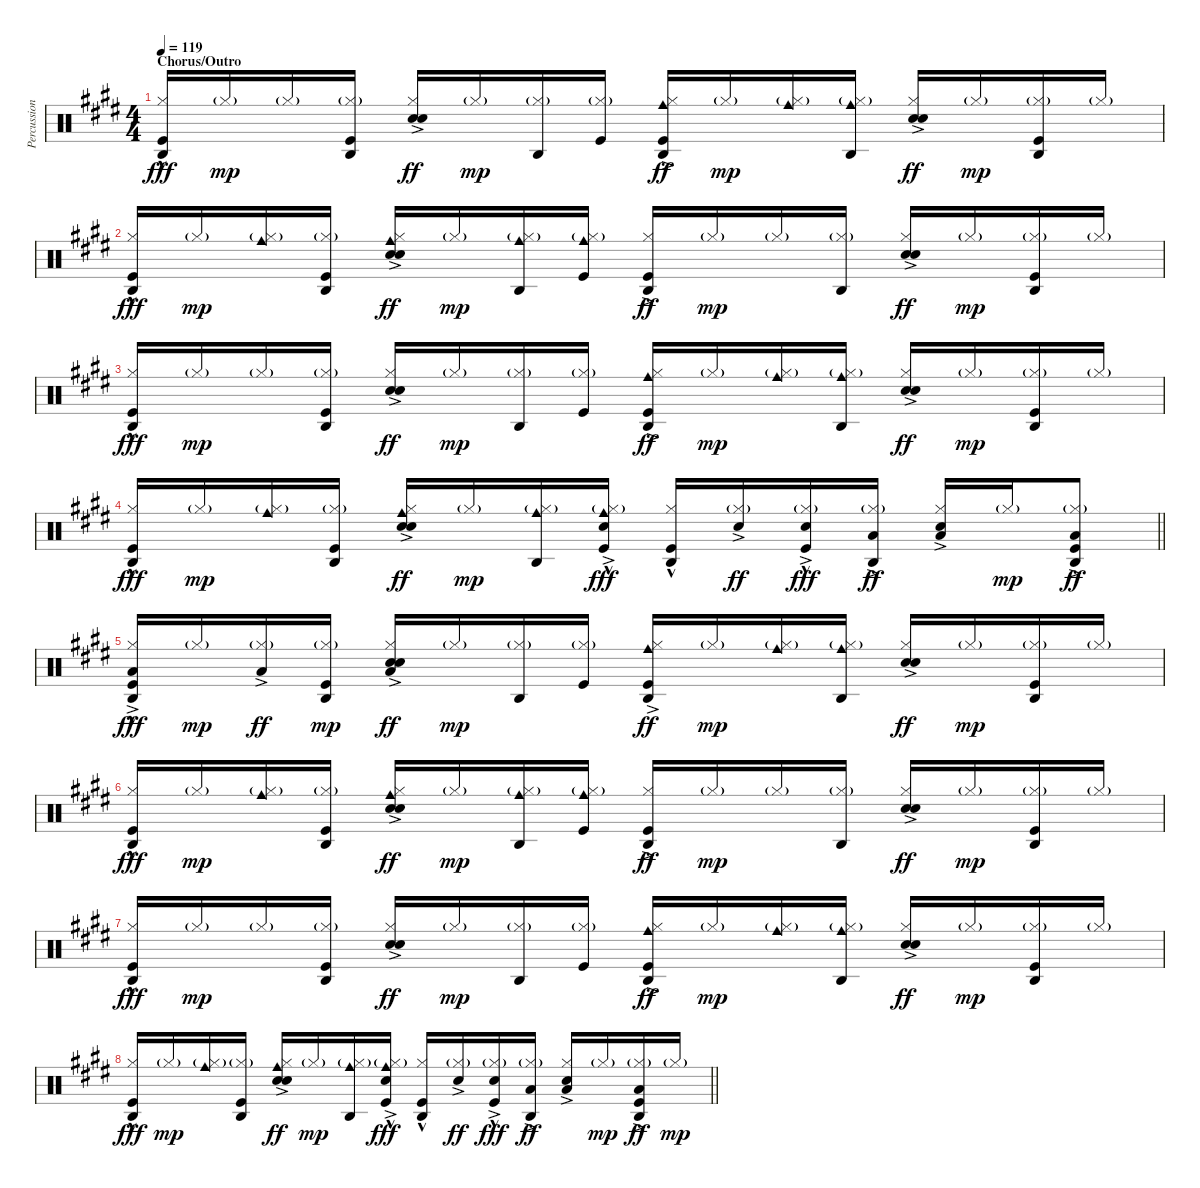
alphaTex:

\track ("Percussion" "Percussion") {instrument percussion}
\staff {score}
\articulation defaults
\ts (4 4)
\section ("" "Chorus/Outro")
\tempo 119
\clef neutral
\ks e
("Agogo high (hit)" "Hi-Hat (closed)" "Kick (hit)"{hac}).16{dy fff} "Hi-Hat (closed)"{g}.16{dy mp} "Hi-Hat (closed)"{g}.16 ("Agogo high (hit)" "Hi-Hat (closed)"{g} "Kick (hit)").16 ("Hi-Hat (closed)" "Hand Clap (hit)"{ac} "Snare (hit) 2"{ac}).16{dy ff} "Hi-Hat (closed)"{g}.16{dy mp} ("Agogo high (hit)" "Hi-Hat (closed)"{g}).16 ("Hi-Hat (closed)"{g} "Kick (hit)").16 ("Agogo high (hit)" "Cowbell medium (hit)" "Hi-Hat (closed)" "Kick (hit)"{ac}).16{dy ff} "Hi-Hat (closed)"{g}.16{dy mp} ("Cowbell medium (hit)" "Hi-Hat (closed)"{g}).16 ("Agogo high (hit)" "Cowbell medium (hit)" "Hi-Hat (closed)"{g}).16 ("Hi-Hat (closed)" "Hand Clap (hit)"{ac} "Snare (hit) 2"{ac}).16{dy ff} "Hi-Hat (closed)"{g}.16{dy mp} ("Agogo high (hit)" "Hi-Hat (closed)"{g} "Kick (hit)").16 "Hi-Hat (closed)"{g}.16 |
("Agogo high (hit)" "Hi-Hat (closed)" "Kick (hit)"{hac}).16{dy fff} "Hi-Hat (closed)"{g}.16{dy mp} ("Cowbell medium (hit)" "Hi-Hat (closed)"{g}).16 ("Agogo high (hit)" "Hi-Hat (closed)"{g} "Kick (hit)").16 ("Cowbell medium (hit)" "Hi-Hat (closed)" "Hand Clap (hit)"{ac} "Snare (hit) 2"{ac}).16{dy ff} "Hi-Hat (closed)"{g}.16{dy mp} ("Agogo high (hit)" "Cowbell medium (hit)" "Hi-Hat (closed)"{g}).16 ("Cowbell medium (hit)" "Hi-Hat (closed)"{g} "Kick (hit)").16 ("Agogo high (hit)" "Hi-Hat (closed)" "Kick (hit)"{ac}).16{dy ff} "Hi-Hat (closed)"{g}.16{dy mp} "Hi-Hat (closed)"{g}.16 ("Agogo high (hit)" "Hi-Hat (closed)"{g}).16 ("Hi-Hat (closed)" "Hand Clap (hit)"{ac} "Snare (hit) 2"{ac}).16{dy ff} "Hi-Hat (closed)"{g}.16{dy mp} ("Agogo high (hit)" "Hi-Hat (closed)"{g} "Kick (hit)").16 "Hi-Hat (closed)"{g}.16 |
("Agogo high (hit)" "Hi-Hat (closed)" "Kick (hit)"{hac}).16{dy fff} "Hi-Hat (closed)"{g}.16{dy mp} "Hi-Hat (closed)"{g}.16 ("Agogo high (hit)" "Hi-Hat (closed)"{g} "Kick (hit)").16 ("Hi-Hat (closed)" "Hand Clap (hit)"{ac} "Snare (hit) 2"{ac}).16{dy ff} "Hi-Hat (closed)"{g}.16{dy mp} ("Agogo high (hit)" "Hi-Hat (closed)"{g}).16 ("Hi-Hat (closed)"{g} "Kick (hit)").16 ("Agogo high (hit)" "Cowbell medium (hit)" "Hi-Hat (closed)" "Kick (hit)"{ac}).16{dy ff} "Hi-Hat (closed)"{g}.16{dy mp} ("Cowbell medium (hit)" "Hi-Hat (closed)"{g}).16 ("Agogo high (hit)" "Cowbell medium (hit)" "Hi-Hat (closed)"{g}).16 ("Hi-Hat (closed)" "Hand Clap (hit)"{ac} "Snare (hit) 2"{ac}).16{dy ff} "Hi-Hat (closed)"{g}.16{dy mp} ("Agogo high (hit)" "Hi-Hat (closed)"{g} "Kick (hit)").16 "Hi-Hat (closed)"{g}.16 |
\barLineRight lightlight
("Agogo high (hit)" "Hi-Hat (closed)" "Kick (hit)"{hac}).16{dy fff} "Hi-Hat (closed)"{g}.16{dy mp} ("Cowbell medium (hit)" "Hi-Hat (closed)"{g}).16 ("Agogo high (hit)" "Hi-Hat (closed)"{g} "Kick (hit)").16 ("Cowbell medium (hit)" "Hi-Hat (closed)" "Hand Clap (hit)"{ac} "Snare (hit) 2"{ac}).16{dy ff} "Hi-Hat (closed)"{g}.16{dy mp} ("Agogo high (hit)" "Cowbell medium (hit)" "Hi-Hat (closed)"{g}).16 ("Cowbell medium (hit)" "Hi-Hat (closed)"{g} "Hand Clap (hit)"{ac} "Kick (hit)"{hac}).16{dy fff} ("Agogo high (hit)" "Hi-Hat (closed)" "Kick (hit)"{hac}).16 ("Hi-Hat (closed)"{g} "Hand Clap (hit)"{ac}).16{dy ff} ("Hi-Hat (closed)"{g} "Hand Clap (hit)"{ac} "Kick (hit)"{hac}).16{dy fff} ("Agogo high (hit)" "Hi-Hat (closed)"{g} "Low Tom (hit)"{ac}).16{dy ff} ("Hi-Hat (closed)" "Hand Clap (hit)"{ac} "Low Tom (hit)"{ac}).16 "Hi-Hat (closed)"{g}.16{dy mp} ("Agogo high (hit)" "Hi-Hat (closed)"{g} "Low Tom (hit)"{ac} "Kick (hit)").8{dy ff} |
("Agogo high (hit)" "Hi-Hat (closed)" "Low Tom (hit)"{ac} "Kick (hit)"{hac}).16{dy fff} "Hi-Hat (closed)"{g}.16{dy mp} ("Hi-Hat (closed)"{g} "Low Tom (hit)"{ac}).16{dy ff} ("Agogo high (hit)" "Hi-Hat (closed)"{g} "Kick (hit)").16{dy mp} ("Hi-Hat (closed)" "Hand Clap (hit)"{ac} "Snare (hit) 2"{ac} "Low Tom (hit)"{ac}).16{dy ff} "Hi-Hat (closed)"{g}.16{dy mp} ("Agogo high (hit)" "Hi-Hat (closed)"{g}).16 ("Hi-Hat (closed)"{g} "Kick (hit)").16 ("Agogo high (hit)" "Cowbell medium (hit)" "Hi-Hat (closed)" "Kick (hit)"{ac}).16{dy ff} "Hi-Hat (closed)"{g}.16{dy mp} ("Cowbell medium (hit)" "Hi-Hat (closed)"{g}).16 ("Agogo high (hit)" "Cowbell medium (hit)" "Hi-Hat (closed)"{g}).16 ("Hi-Hat (closed)" "Hand Clap (hit)"{ac} "Snare (hit) 2"{ac}).16{dy ff} "Hi-Hat (closed)"{g}.16{dy mp} ("Agogo high (hit)" "Hi-Hat (closed)"{g} "Kick (hit)").16 "Hi-Hat (closed)"{g}.16 |
("Agogo high (hit)" "Hi-Hat (closed)" "Kick (hit)"{hac}).16{dy fff} "Hi-Hat (closed)"{g}.16{dy mp} ("Cowbell medium (hit)" "Hi-Hat (closed)"{g}).16 ("Agogo high (hit)" "Hi-Hat (closed)"{g} "Kick (hit)").16 ("Cowbell medium (hit)" "Hi-Hat (closed)" "Hand Clap (hit)"{ac} "Snare (hit) 2"{ac}).16{dy ff} "Hi-Hat (closed)"{g}.16{dy mp} ("Agogo high (hit)" "Cowbell medium (hit)" "Hi-Hat (closed)"{g}).16 ("Cowbell medium (hit)" "Hi-Hat (closed)"{g} "Kick (hit)").16 ("Agogo high (hit)" "Hi-Hat (closed)" "Kick (hit)"{ac}).16{dy ff} "Hi-Hat (closed)"{g}.16{dy mp} "Hi-Hat (closed)"{g}.16 ("Agogo high (hit)" "Hi-Hat (closed)"{g}).16 ("Hi-Hat (closed)" "Hand Clap (hit)"{ac} "Snare (hit) 2"{ac}).16{dy ff} "Hi-Hat (closed)"{g}.16{dy mp} ("Agogo high (hit)" "Hi-Hat (closed)"{g} "Kick (hit)").16 "Hi-Hat (closed)"{g}.16 |
("Agogo high (hit)" "Hi-Hat (closed)" "Kick (hit)"{hac}).16{dy fff} "Hi-Hat (closed)"{g}.16{dy mp} "Hi-Hat (closed)"{g}.16 ("Agogo high (hit)" "Hi-Hat (closed)"{g} "Kick (hit)").16 ("Hi-Hat (closed)" "Hand Clap (hit)"{ac} "Snare (hit) 2"{ac}).16{dy ff} "Hi-Hat (closed)"{g}.16{dy mp} ("Agogo high (hit)" "Hi-Hat (closed)"{g}).16 ("Hi-Hat (closed)"{g} "Kick (hit)").16 ("Agogo high (hit)" "Cowbell medium (hit)" "Hi-Hat (closed)" "Kick (hit)"{ac}).16{dy ff} "Hi-Hat (closed)"{g}.16{dy mp} ("Cowbell medium (hit)" "Hi-Hat (closed)"{g}).16 ("Agogo high (hit)" "Cowbell medium (hit)" "Hi-Hat (closed)"{g}).16 ("Hi-Hat (closed)" "Hand Clap (hit)"{ac} "Snare (hit) 2"{ac}).16{dy ff} "Hi-Hat (closed)"{g}.16{dy mp} ("Agogo high (hit)" "Hi-Hat (closed)"{g} "Kick (hit)").16 "Hi-Hat (closed)"{g}.16 |
\barLineRight lightlight
("Agogo high (hit)" "Hi-Hat (closed)" "Kick (hit)"{hac}).16{dy fff} "Hi-Hat (closed)"{g}.16{dy mp} ("Cowbell medium (hit)" "Hi-Hat (closed)"{g}).16 ("Agogo high (hit)" "Hi-Hat (closed)"{g} "Kick (hit)").16 ("Cowbell medium (hit)" "Hi-Hat (closed)" "Hand Clap (hit)"{ac} "Snare (hit) 2"{ac}).16{dy ff} "Hi-Hat (closed)"{g}.16{dy mp} ("Agogo high (hit)" "Cowbell medium (hit)" "Hi-Hat (closed)"{g}).16 ("Cowbell medium (hit)" "Hi-Hat (closed)"{g} "Hand Clap (hit)"{ac} "Kick (hit)"{hac}).16{dy fff} ("Agogo high (hit)" "Hi-Hat (closed)" "Kick (hit)"{hac}).16 ("Hi-Hat (closed)"{g} "Hand Clap (hit)"{ac}).16{dy ff} ("Hi-Hat (closed)"{g} "Hand Clap (hit)"{ac} "Kick (hit)"{hac}).16{dy fff} ("Agogo high (hit)" "Hi-Hat (closed)"{g} "Low Tom (hit)"{ac}).16{dy ff} ("Hi-Hat (closed)" "Hand Clap (hit)"{ac} "Low Tom (hit)"{ac}).16 "Hi-Hat (closed)"{g}.16{dy mp} ("Agogo high (hit)" "Hi-Hat (closed)"{g} "Low Tom (hit)"{ac} "Kick (hit)").16{dy ff} "Hi-Hat (closed)"{g}.16{dy mp}
